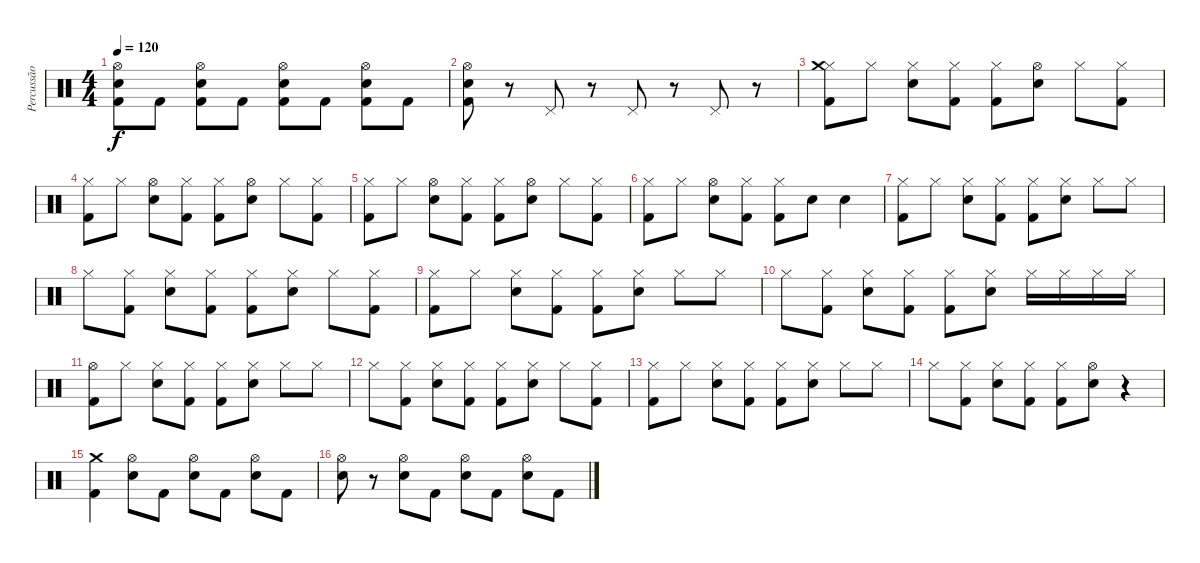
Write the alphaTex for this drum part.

\track ("Percussão" "Percussão") {instrument percussion}
\staff {score}
\articulation defaults
\ts (4 4)
\tempo 120
\clef neutral
\ks c
("Electric Snare (hit)" "Kick (hit) 2" "Hi-Hat (open)").8{dy f} "Kick (hit) 2".8 ("Electric Snare (hit)" "Kick (hit) 2" "Hi-Hat (open)").8 "Kick (hit) 2".8 ("Electric Snare (hit)" "Kick (hit) 2" "Hi-Hat (open)").8 "Kick (hit) 2".8 ("Electric Snare (hit)" "Kick (hit) 2" "Hi-Hat (open)").8 "Kick (hit) 2".8 |
("Electric Snare (hit)" "Kick (hit) 2" "Hi-Hat (open)").8 r.8 "Pedal Hi-Hat (hit)".8 r.8 "Pedal Hi-Hat (hit)".8 r.8 "Pedal Hi-Hat (hit)".8 r.8 |
("Kick (hit) 2" "Hi-Hat (closed)" "Crash medium (hit)").8 "Hi-Hat (closed)".8 ("Electric Snare (hit)" "Hi-Hat (closed)").8 ("Kick (hit) 2" "Hi-Hat (closed)").8 ("Kick (hit) 2" "Hi-Hat (closed)").8 ("Electric Snare (hit)" "Hi-Hat (open)").8 "Hi-Hat (closed)".8 ("Kick (hit) 2" "Hi-Hat (closed)").8 |
("Kick (hit) 2" "Hi-Hat (closed)").8 "Hi-Hat (closed)".8 ("Electric Snare (hit)" "Hi-Hat (open)").8 ("Kick (hit) 2" "Hi-Hat (closed)").8 ("Kick (hit) 2" "Hi-Hat (closed)").8 ("Electric Snare (hit)" "Hi-Hat (open)").8 "Hi-Hat (closed)".8 ("Kick (hit) 2" "Hi-Hat (closed)").8 |
("Kick (hit) 2" "Hi-Hat (closed)").8 "Hi-Hat (closed)".8 ("Electric Snare (hit)" "Hi-Hat (open)").8 ("Kick (hit) 2" "Hi-Hat (closed)").8 ("Kick (hit) 2" "Hi-Hat (closed)").8 ("Electric Snare (hit)" "Hi-Hat (open)").8 "Hi-Hat (closed)".8 ("Kick (hit) 2" "Hi-Hat (closed)").8 |
("Kick (hit) 2" "Hi-Hat (closed)").8 "Hi-Hat (closed)".8 ("Electric Snare (hit)" "Hi-Hat (open)").8 ("Kick (hit) 2" "Hi-Hat (closed)").8 ("Kick (hit) 2" "Hi-Hat (closed)").8 "Electric Snare (hit)".8 "Electric Snare (hit)".4 |
("Kick (hit) 2" "Hi-Hat (closed)").8 "Hi-Hat (closed)".8 ("Electric Snare (hit)" "Hi-Hat (closed)").8 ("Kick (hit) 2" "Hi-Hat (closed)").8 ("Kick (hit) 2" "Hi-Hat (closed)").8 ("Electric Snare (hit)" "Hi-Hat (closed)").8 "Hi-Hat (closed)".8 "Hi-Hat (closed)".8 |
"Hi-Hat (closed)".8 ("Kick (hit) 2" "Hi-Hat (closed)").8 ("Electric Snare (hit)" "Hi-Hat (closed)").8 ("Kick (hit) 2" "Hi-Hat (closed)").8 ("Kick (hit) 2" "Hi-Hat (closed)").8 ("Electric Snare (hit)" "Hi-Hat (closed)").8 "Hi-Hat (closed)".8 ("Kick (hit) 2" "Hi-Hat (closed)").8 |
("Kick (hit) 2" "Hi-Hat (closed)").8 "Hi-Hat (closed)".8 ("Electric Snare (hit)" "Hi-Hat (closed)").8 ("Kick (hit) 2" "Hi-Hat (closed)").8 ("Kick (hit) 2" "Hi-Hat (closed)").8 ("Electric Snare (hit)" "Hi-Hat (closed)").8 "Hi-Hat (closed)".8 "Hi-Hat (closed)".8 |
"Hi-Hat (closed)".8 ("Kick (hit) 2" "Hi-Hat (closed)").8 ("Electric Snare (hit)" "Hi-Hat (closed)").8 ("Kick (hit) 2" "Hi-Hat (closed)").8 ("Kick (hit) 2" "Hi-Hat (closed)").8 ("Electric Snare (hit)" "Hi-Hat (closed)").8 "Hi-Hat (closed)".16 "Hi-Hat (closed)".16 "Hi-Hat (closed)".16 "Hi-Hat (closed)".16 |
("Kick (hit) 2" "Hi-Hat (open)").8 "Hi-Hat (closed)".8 ("Electric Snare (hit)" "Hi-Hat (closed)").8 ("Kick (hit) 2" "Hi-Hat (closed)").8 ("Kick (hit) 2" "Hi-Hat (closed)").8 ("Electric Snare (hit)" "Hi-Hat (closed)").8 "Hi-Hat (closed)".8 "Hi-Hat (closed)".8 |
"Hi-Hat (closed)".8 ("Kick (hit) 2" "Hi-Hat (closed)").8 ("Electric Snare (hit)" "Hi-Hat (closed)").8 ("Kick (hit) 2" "Hi-Hat (closed)").8 ("Kick (hit) 2" "Hi-Hat (closed)").8 ("Electric Snare (hit)" "Hi-Hat (closed)").8 "Hi-Hat (closed)".8 ("Kick (hit) 2" "Hi-Hat (closed)").8 |
("Kick (hit) 2" "Hi-Hat (closed)").8 "Hi-Hat (closed)".8 ("Electric Snare (hit)" "Hi-Hat (closed)").8 ("Kick (hit) 2" "Hi-Hat (closed)").8 ("Kick (hit) 2" "Hi-Hat (closed)").8 ("Electric Snare (hit)" "Hi-Hat (closed)").8 "Hi-Hat (closed)".8 "Hi-Hat (closed)".8 |
"Hi-Hat (closed)".8 ("Kick (hit) 2" "Hi-Hat (closed)").8 ("Electric Snare (hit)" "Hi-Hat (closed)").8 ("Kick (hit) 2" "Hi-Hat (closed)").8 ("Kick (hit) 2" "Hi-Hat (closed)").8 ("Electric Snare (hit)" "Hi-Hat (open)").8 r.4 |
("Kick (hit) 2" "Crash medium (hit)").4 ("Electric Snare (hit)" "Hi-Hat (open)").8 "Kick (hit) 2".8 ("Electric Snare (hit)" "Hi-Hat (open)").8 "Kick (hit) 2".8 ("Electric Snare (hit)" "Hi-Hat (open)").8 "Kick (hit) 2".8 |
("Electric Snare (hit)" "Hi-Hat (open)").8 r.8 ("Electric Snare (hit)" "Hi-Hat (open)").8 "Kick (hit) 2".8 ("Electric Snare (hit)" "Hi-Hat (open)").8 "Kick (hit) 2".8 ("Electric Snare (hit)" "Hi-Hat (open)").8 "Kick (hit) 2".8
